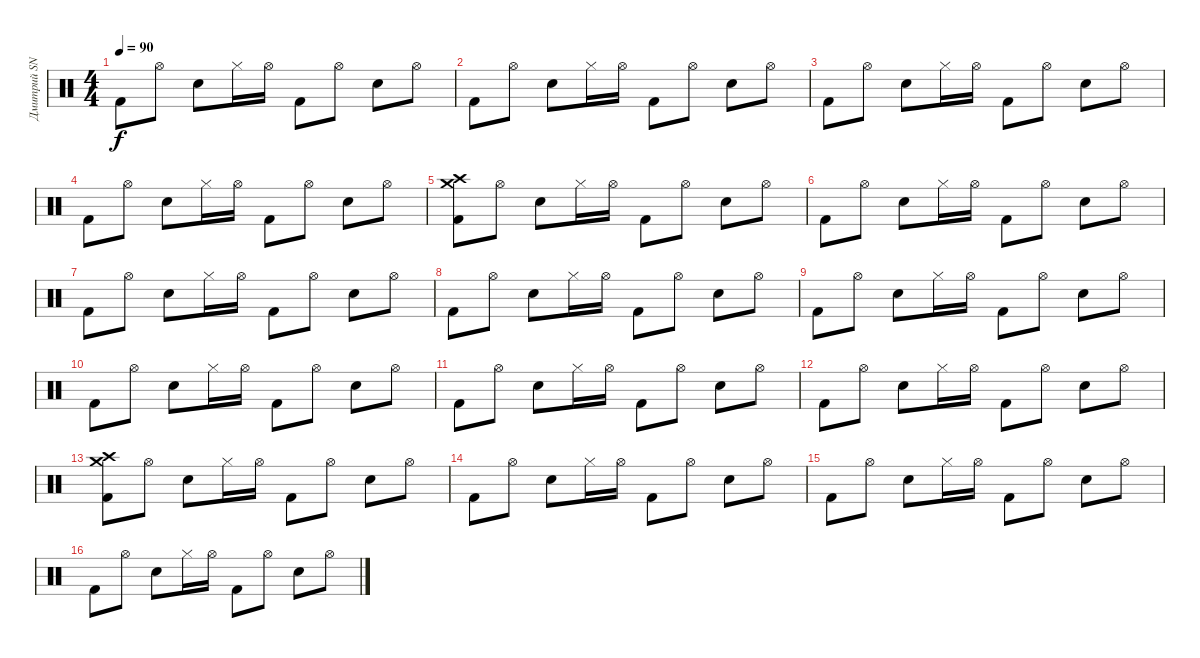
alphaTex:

\track ("Дмитрий SNAKE Хакимов" "Дмитрий SN") {instrument percussion}
\staff {score}
\articulation defaults
\ts (4 4)
\tempo 90
\clef neutral
\ks c "Kick (hit) 2".8{dy f} "Hi-Hat (open)".8 "Snare (hit) 2".8 "Hi-Hat (closed)".16 "Hi-Hat (open)".16 "Kick (hit) 2".8 "Hi-Hat (open)".8 "Snare (hit) 2".8 "Hi-Hat (open)".8
|
"Kick (hit) 2".8 "Hi-Hat (open)".8 "Snare (hit) 2".8 "Hi-Hat (closed)".16 "Hi-Hat (open)".16 "Kick (hit) 2".8 "Hi-Hat (open)".8 "Snare (hit) 2".8 "Hi-Hat (open)".8 |
"Kick (hit) 2".8 "Hi-Hat (open)".8 "Snare (hit) 2".8 "Hi-Hat (closed)".16 "Hi-Hat (open)".16 "Kick (hit) 2".8 "Hi-Hat (open)".8 "Snare (hit) 2".8 "Hi-Hat (open)".8 |
"Kick (hit) 2".8 "Hi-Hat (open)".8 "Snare (hit) 2".8 "Hi-Hat (closed)".16 "Hi-Hat (open)".16 "Kick (hit) 2".8 "Hi-Hat (open)".8 "Snare (hit) 2".8 "Hi-Hat (open)".8 |
("Crash high (hit)" "Crash medium (hit)" "Kick (hit) 2").8 "Hi-Hat (open)".8 "Snare (hit) 2".8 "Hi-Hat (closed)".16 "Hi-Hat (open)".16 "Kick (hit) 2".8 "Hi-Hat (open)".8 "Snare (hit) 2".8 "Hi-Hat (open)".8 |
"Kick (hit) 2".8 "Hi-Hat (open)".8 "Snare (hit) 2".8 "Hi-Hat (closed)".16 "Hi-Hat (open)".16 "Kick (hit) 2".8 "Hi-Hat (open)".8 "Snare (hit) 2".8 "Hi-Hat (open)".8 |
"Kick (hit) 2".8 "Hi-Hat (open)".8 "Snare (hit) 2".8 "Hi-Hat (closed)".16 "Hi-Hat (open)".16 "Kick (hit) 2".8 "Hi-Hat (open)".8 "Snare (hit) 2".8 "Hi-Hat (open)".8 |
"Kick (hit) 2".8 "Hi-Hat (open)".8 "Snare (hit) 2".8 "Hi-Hat (closed)".16 "Hi-Hat (open)".16 "Kick (hit) 2".8 "Hi-Hat (open)".8 "Snare (hit) 2".8 "Hi-Hat (open)".8 |
"Kick (hit) 2".8 "Hi-Hat (open)".8 "Snare (hit) 2".8 "Hi-Hat (closed)".16 "Hi-Hat (open)".16 "Kick (hit) 2".8 "Hi-Hat (open)".8 "Snare (hit) 2".8 "Hi-Hat (open)".8 |
"Kick (hit) 2".8 "Hi-Hat (open)".8 "Snare (hit) 2".8 "Hi-Hat (closed)".16 "Hi-Hat (open)".16 "Kick (hit) 2".8 "Hi-Hat (open)".8 "Snare (hit) 2".8 "Hi-Hat (open)".8 |
"Kick (hit) 2".8 "Hi-Hat (open)".8 "Snare (hit) 2".8 "Hi-Hat (closed)".16 "Hi-Hat (open)".16 "Kick (hit) 2".8 "Hi-Hat (open)".8 "Snare (hit) 2".8 "Hi-Hat (open)".8 |
"Kick (hit) 2".8 "Hi-Hat (open)".8 "Snare (hit) 2".8 "Hi-Hat (closed)".16 "Hi-Hat (open)".16 "Kick (hit) 2".8 "Hi-Hat (open)".8 "Snare (hit) 2".8 "Hi-Hat (open)".8 |
("Crash high (hit)" "Crash medium (hit)" "Kick (hit) 2").8 "Hi-Hat (open)".8 "Snare (hit) 2".8 "Hi-Hat (closed)".16 "Hi-Hat (open)".16 "Kick (hit) 2".8 "Hi-Hat (open)".8 "Snare (hit) 2".8 "Hi-Hat (open)".8 |
"Kick (hit) 2".8 "Hi-Hat (open)".8 "Snare (hit) 2".8 "Hi-Hat (closed)".16 "Hi-Hat (open)".16 "Kick (hit) 2".8 "Hi-Hat (open)".8 "Snare (hit) 2".8 "Hi-Hat (open)".8 |
"Kick (hit) 2".8 "Hi-Hat (open)".8 "Snare (hit) 2".8 "Hi-Hat (closed)".16 "Hi-Hat (open)".16 "Kick (hit) 2".8 "Hi-Hat (open)".8 "Snare (hit) 2".8 "Hi-Hat (open)".8 |
"Kick (hit) 2".8 "Hi-Hat (open)".8 "Snare (hit) 2".8 "Hi-Hat (closed)".16 "Hi-Hat (open)".16 "Kick (hit) 2".8 "Hi-Hat (open)".8 "Snare (hit) 2".8 "Hi-Hat (open)".8
